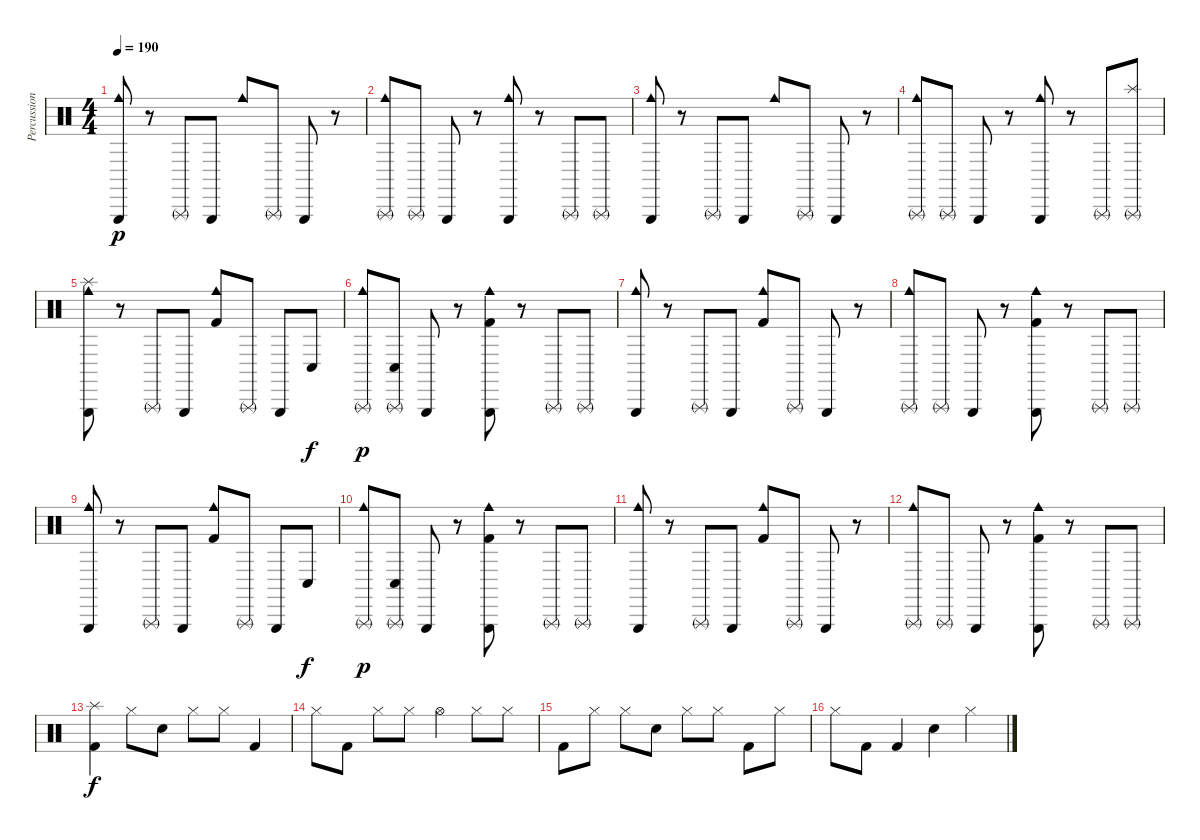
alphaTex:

\track ("Percussion" "Percussion") {instrument percussion}
\staff {score}
\articulation defaults
\ts (4 4)
\tempo 190
\clef neutral
\ks c
("Cowbell medium (hit)" "Triangle (hit)").8{dy p} r.8 "Triangle (rnute)".8 "Triangle (hit)".8 "Cowbell medium (hit)".8 "Triangle (rnute)".8 "Triangle (hit)".8 r.8 |
("Cowbell medium (hit)" "Triangle (rnute)").8 "Triangle (rnute)".8 "Triangle (hit)".8 r.8 ("Cowbell medium (hit)" "Triangle (hit)").8 r.8 "Triangle (rnute)".8 "Triangle (rnute)".8 |
("Cowbell medium (hit)" "Triangle (hit)").8 r.8 "Triangle (rnute)".8 "Triangle (hit)".8 "Cowbell medium (hit)".8 "Triangle (rnute)".8 "Triangle (hit)".8 r.8 |
("Cowbell medium (hit)" "Triangle (rnute)").8 "Triangle (rnute)".8 "Triangle (hit)".8 r.8 ("Cowbell medium (hit)" "Triangle (hit)").8 r.8 "Triangle (rnute)".8 ("Splash (hit)" "Triangle (rnute)").8 |
("Splash (hit)" "Cowbell medium (hit)" "Triangle (hit)").8 r.8 "Triangle (rnute)".8 "Triangle (hit)".8 ("Cowbell medium (hit)" "Kick (hit) 2").8 "Triangle (rnute)".8 "Triangle (hit)".8 "Conga low (hit)".8{dy f} |
("Cowbell medium (hit)" "Triangle (rnute)").8{dy p} ("Conga low (hit)" "Triangle (rnute)").8 "Triangle (hit)".8 r.8 ("Cowbell medium (hit)" "Triangle (hit)" "Kick (hit) 2").8 r.8 "Triangle (rnute)".8 "Triangle (rnute)".8 |
("Cowbell medium (hit)" "Triangle (hit)").8 r.8 "Triangle (rnute)".8 "Triangle (hit)".8 ("Cowbell medium (hit)" "Kick (hit) 2").8 "Triangle (rnute)".8 "Triangle (hit)".8 r.8 |
("Cowbell medium (hit)" "Triangle (rnute)").8 "Triangle (rnute)".8 "Triangle (hit)".8 r.8 ("Cowbell medium (hit)" "Triangle (hit)" "Kick (hit) 2").8 r.8 "Triangle (rnute)".8 "Triangle (rnute)".8 |
("Cowbell medium (hit)" "Triangle (hit)").8 r.8 "Triangle (rnute)".8 "Triangle (hit)".8 ("Cowbell medium (hit)" "Kick (hit) 2").8 "Triangle (rnute)".8 "Triangle (hit)".8 "Conga low (hit)".8{dy f} |
("Cowbell medium (hit)" "Triangle (rnute)").8{dy p} ("Conga low (hit)" "Triangle (rnute)").8 "Triangle (hit)".8 r.8 ("Cowbell medium (hit)" "Triangle (hit)" "Kick (hit) 2").8 r.8 "Triangle (rnute)".8 "Triangle (rnute)".8 |
("Cowbell medium (hit)" "Triangle (hit)").8 r.8 "Triangle (rnute)".8 "Triangle (hit)".8 ("Cowbell medium (hit)" "Kick (hit) 2").8 "Triangle (rnute)".8 "Triangle (hit)".8 r.8 |
("Cowbell medium (hit)" "Triangle (rnute)").8 "Triangle (rnute)".8 "Triangle (hit)".8 r.8 ("Cowbell medium (hit)" "Triangle (hit)" "Kick (hit) 2").8 r.8 "Triangle (rnute)".8 "Triangle (rnute)".8 |
("Splash (hit)" "Kick (hit) 2").4{dy f} "Hi-Hat (closed)".8 "Electric Snare (hit)".8 "Hi-Hat (closed)".8 "Hi-Hat (closed)".8 "Kick (hit) 2".4 |
"Hi-Hat (closed)".8 "Kick (hit) 2".8 "Hi-Hat (closed)".8 "Hi-Hat (closed)".8 "Hi-Hat (open)".4 "Hi-Hat (closed)".8 "Hi-Hat (closed)".8 |
"Kick (hit) 2".8 "Hi-Hat (closed)".8 "Hi-Hat (closed)".8 "Electric Snare (hit)".8 "Hi-Hat (closed)".8 "Hi-Hat (closed)".8 "Kick (hit) 2".8 "Hi-Hat (closed)".8 |
"Hi-Hat (closed)".8 "Kick (hit) 2".8 "Kick (hit) 2".4 "Electric Snare (hit)".4 "Hi-Hat (closed)".4
